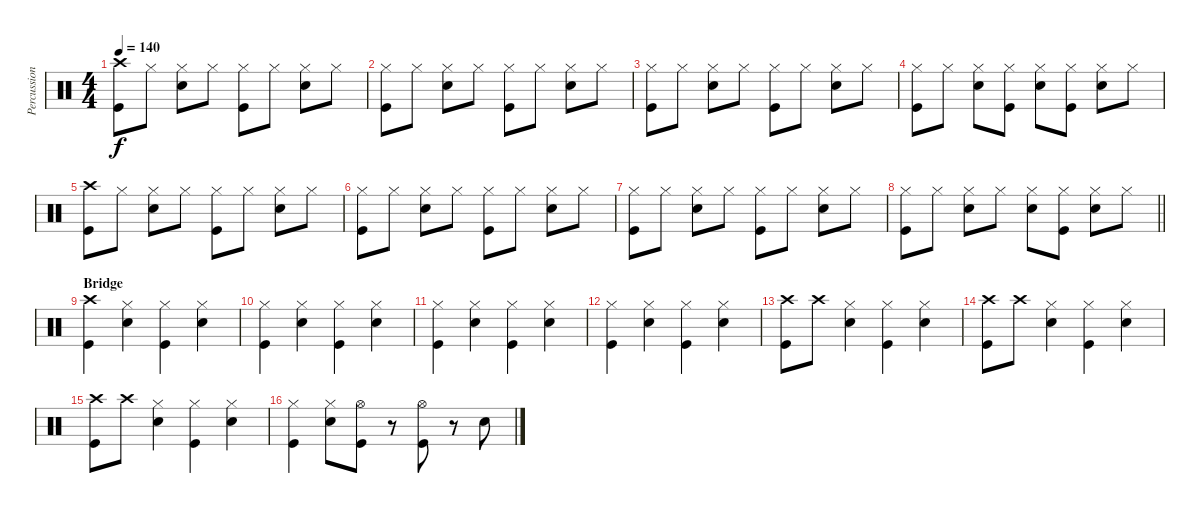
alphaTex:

\track ("Percussion" "Percussion") {instrument percussion}
\staff {score}
\articulation defaults
\ts (4 4)
\tempo 140
\clef neutral
\ks c
("Crash high (hit)" "Kick (hit)").8{dy f} "Hi-Hat (closed)".8 ("Snare (hit) 2" "Hi-Hat (closed)").8 "Hi-Hat (closed)".8 ("Kick (hit)" "Hi-Hat (closed)").8 "Hi-Hat (closed)".8 ("Hi-Hat (closed)" "Snare (hit) 2").8 "Hi-Hat (closed)".8 |
("Hi-Hat (closed)" "Kick (hit)").8 "Hi-Hat (closed)".8 ("Snare (hit) 2" "Hi-Hat (closed)").8 "Hi-Hat (closed)".8 ("Kick (hit)" "Hi-Hat (closed)").8 "Hi-Hat (closed)".8 ("Hi-Hat (closed)" "Snare (hit) 2").8 "Hi-Hat (closed)".8 |
("Hi-Hat (closed)" "Kick (hit)").8 "Hi-Hat (closed)".8 ("Snare (hit) 2" "Hi-Hat (closed)").8 "Hi-Hat (closed)".8 ("Kick (hit)" "Hi-Hat (closed)").8 "Hi-Hat (closed)".8 ("Hi-Hat (closed)" "Snare (hit) 2").8 "Hi-Hat (closed)".8 |
("Hi-Hat (closed)" "Kick (hit)").8 "Hi-Hat (closed)".8 ("Snare (hit) 2" "Hi-Hat (closed)").8 ("Hi-Hat (closed)" "Kick (hit)").8 ("Snare (hit) 2" "Hi-Hat (closed)").8 ("Hi-Hat (closed)" "Kick (hit)").8 ("Hi-Hat (closed)" "Snare (hit) 2").8 "Hi-Hat (closed)".8 |
("Crash high (hit)" "Kick (hit)").8 "Hi-Hat (closed)".8 ("Snare (hit) 2" "Hi-Hat (closed)").8 "Hi-Hat (closed)".8 ("Kick (hit)" "Hi-Hat (closed)").8 "Hi-Hat (closed)".8 ("Hi-Hat (closed)" "Snare (hit) 2").8 "Hi-Hat (closed)".8 |
("Hi-Hat (closed)" "Kick (hit)").8 "Hi-Hat (closed)".8 ("Snare (hit) 2" "Hi-Hat (closed)").8 "Hi-Hat (closed)".8 ("Kick (hit)" "Hi-Hat (closed)").8 "Hi-Hat (closed)".8 ("Hi-Hat (closed)" "Snare (hit) 2").8 "Hi-Hat (closed)".8 |
("Hi-Hat (closed)" "Kick (hit)").8 "Hi-Hat (closed)".8 ("Snare (hit) 2" "Hi-Hat (closed)").8 "Hi-Hat (closed)".8 ("Kick (hit)" "Hi-Hat (closed)").8 "Hi-Hat (closed)".8 ("Hi-Hat (closed)" "Snare (hit) 2").8 "Hi-Hat (closed)".8 |
\barLineRight lightlight
("Hi-Hat (closed)" "Kick (hit)").8 "Hi-Hat (closed)".8 ("Snare (hit) 2" "Hi-Hat (closed)").8 "Hi-Hat (closed)".8 ("Snare (hit) 2" "Hi-Hat (closed)").8 ("Hi-Hat (closed)" "Kick (hit)").8 ("Hi-Hat (closed)" "Snare (hit) 2").8 "Hi-Hat (closed)".8 |
\section ("" "Bridge")
("Crash high (hit)" "Kick (hit)").4 ("Snare (hit) 2" "Hi-Hat (closed)").4 ("Kick (hit)" "Hi-Hat (closed)").4 ("Hi-Hat (closed)" "Snare (hit) 2").4 |
("Hi-Hat (closed)" "Kick (hit)").4 ("Snare (hit) 2" "Hi-Hat (closed)").4 ("Kick (hit)" "Hi-Hat (closed)").4 ("Hi-Hat (closed)" "Snare (hit) 2").4 |
("Hi-Hat (closed)" "Kick (hit)").4 ("Snare (hit) 2" "Hi-Hat (closed)").4 ("Kick (hit)" "Hi-Hat (closed)").4 ("Hi-Hat (closed)" "Snare (hit) 2").4 |
("Hi-Hat (closed)" "Kick (hit)").4 ("Snare (hit) 2" "Hi-Hat (closed)").4 ("Kick (hit)" "Hi-Hat (closed)").4 ("Hi-Hat (closed)" "Snare (hit) 2").4 |
("Crash high (hit)" "Kick (hit)").8 "Crash high (hit)".8 ("Snare (hit) 2" "Hi-Hat (closed)").4 ("Kick (hit)" "Hi-Hat (closed)").4 ("Hi-Hat (closed)" "Snare (hit) 2").4 |
("Crash high (hit)" "Kick (hit)").8 "Crash high (hit)".8 ("Snare (hit) 2" "Hi-Hat (closed)").4 ("Kick (hit)" "Hi-Hat (closed)").4 ("Hi-Hat (closed)" "Snare (hit) 2").4 |
("Crash high (hit)" "Kick (hit)").8 "Crash high (hit)".8 ("Snare (hit) 2" "Hi-Hat (closed)").4 ("Kick (hit)" "Hi-Hat (closed)").4 ("Hi-Hat (closed)" "Snare (hit) 2").4 |
("Hi-Hat (closed)" "Kick (hit)").4 ("Snare (hit) 2" "Hi-Hat (closed)").8 ("Hi-Hat (open)" "Kick (hit)").8 r.8 ("Hi-Hat (open)" "Kick (hit)").8 r.8 "Snare (hit) 2".8
